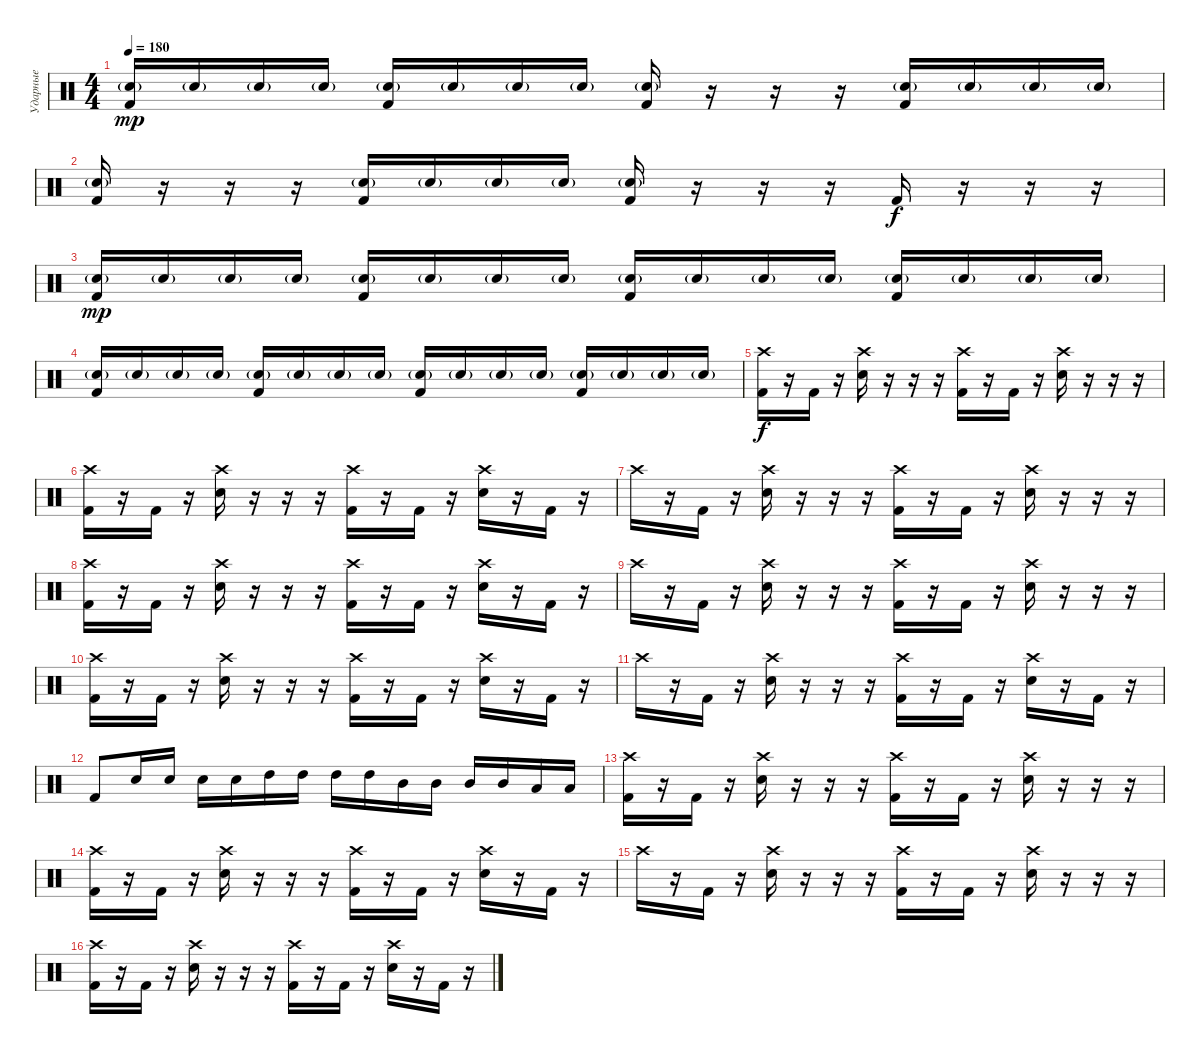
\track ("Ударные" "Ударные") {instrument percussion}
\staff {score}
\articulation defaults
\ts (4 4)
\tempo 180
\clef neutral
\ks c
("Electric Snare (hit)"{g} "Kick (hit) 2").16{dy mp} "Electric Snare (hit)"{g}.16 "Electric Snare (hit)"{g}.16 "Electric Snare (hit)"{g}.16 ("Electric Snare (hit)"{g} "Kick (hit) 2").16 "Electric Snare (hit)"{g}.16 "Electric Snare (hit)"{g}.16 "Electric Snare (hit)"{g}.16 ("Electric Snare (hit)"{g} "Kick (hit) 2").16 r.16 r.16 r.16 ("Electric Snare (hit)"{g} "Kick (hit) 2").16 "Electric Snare (hit)"{g}.16 "Electric Snare (hit)"{g}.16 "Electric Snare (hit)"{g}.16 |
("Electric Snare (hit)"{g} "Kick (hit) 2").16 r.16 r.16 r.16 ("Electric Snare (hit)"{g} "Kick (hit) 2").16 "Electric Snare (hit)"{g}.16 "Electric Snare (hit)"{g}.16 "Electric Snare (hit)"{g}.16 ("Electric Snare (hit)"{g} "Kick (hit) 2").16 r.16 r.16 r.16 "Kick (hit) 2".16{dy f} r.16 r.16 r.16 |
("Electric Snare (hit)"{g} "Kick (hit) 2").16{dy mp} "Electric Snare (hit)"{g}.16 "Electric Snare (hit)"{g}.16 "Electric Snare (hit)"{g}.16 ("Electric Snare (hit)"{g} "Kick (hit) 2").16 "Electric Snare (hit)"{g}.16 "Electric Snare (hit)"{g}.16 "Electric Snare (hit)"{g}.16 ("Electric Snare (hit)"{g} "Kick (hit) 2").16 "Electric Snare (hit)"{g}.16 "Electric Snare (hit)"{g}.16 "Electric Snare (hit)"{g}.16 ("Electric Snare (hit)"{g} "Kick (hit) 2").16 "Electric Snare (hit)"{g}.16 "Electric Snare (hit)"{g}.16 "Electric Snare (hit)"{g}.16 |
("Electric Snare (hit)"{g} "Kick (hit) 2").16 "Electric Snare (hit)"{g}.16 "Electric Snare (hit)"{g}.16 "Electric Snare (hit)"{g}.16 ("Electric Snare (hit)"{g} "Kick (hit) 2").16 "Electric Snare (hit)"{g}.16 "Electric Snare (hit)"{g}.16 "Electric Snare (hit)"{g}.16 ("Electric Snare (hit)"{g} "Kick (hit) 2").16 "Electric Snare (hit)"{g}.16 "Electric Snare (hit)"{g}.16 "Electric Snare (hit)"{g}.16 ("Electric Snare (hit)"{g} "Kick (hit) 2").16 "Electric Snare (hit)"{g}.16 "Electric Snare (hit)"{g}.16 "Electric Snare (hit)"{g}.16 |
("Crash high (hit)" "Kick (hit) 2").16{dy f} r.16 "Kick (hit) 2".16 r.16 ("Crash high (hit)" "Electric Snare (hit)").16 r.16 r.16 r.16 ("Crash high (hit)" "Kick (hit) 2").16 r.16 "Kick (hit) 2".16 r.16 ("Crash high (hit)" "Electric Snare (hit)").16 r.16 r.16 r.16 |
("Crash high (hit)" "Kick (hit) 2").16 r.16 "Kick (hit) 2".16 r.16 ("Crash high (hit)" "Electric Snare (hit)").16 r.16 r.16 r.16 ("Crash high (hit)" "Kick (hit) 2").16 r.16 "Kick (hit) 2".16 r.16 ("Crash high (hit)" "Electric Snare (hit)").16 r.16 "Kick (hit) 2".16 r.16 |
"Crash high (hit)".16 r.16 "Kick (hit) 2".16 r.16 ("Crash high (hit)" "Electric Snare (hit)").16 r.16 r.16 r.16 ("Crash high (hit)" "Kick (hit) 2").16 r.16 "Kick (hit) 2".16 r.16 ("Crash high (hit)" "Electric Snare (hit)").16 r.16 r.16 r.16 |
("Crash high (hit)" "Kick (hit) 2").16 r.16 "Kick (hit) 2".16 r.16 ("Crash high (hit)" "Electric Snare (hit)").16 r.16 r.16 r.16 ("Crash high (hit)" "Kick (hit) 2").16 r.16 "Kick (hit) 2".16 r.16 ("Crash high (hit)" "Electric Snare (hit)").16 r.16 "Kick (hit) 2".16 r.16 |
"Crash high (hit)".16 r.16 "Kick (hit) 2".16 r.16 ("Crash high (hit)" "Electric Snare (hit)").16 r.16 r.16 r.16 ("Crash high (hit)" "Kick (hit) 2").16 r.16 "Kick (hit) 2".16 r.16 ("Crash high (hit)" "Electric Snare (hit)").16 r.16 r.16 r.16 |
("Crash high (hit)" "Kick (hit) 2").16 r.16 "Kick (hit) 2".16 r.16 ("Crash high (hit)" "Electric Snare (hit)").16 r.16 r.16 r.16 ("Crash high (hit)" "Kick (hit) 2").16 r.16 "Kick (hit) 2".16 r.16 ("Crash high (hit)" "Electric Snare (hit)").16 r.16 "Kick (hit) 2".16 r.16 |
"Crash high (hit)".16 r.16 "Kick (hit) 2".16 r.16 ("Crash high (hit)" "Electric Snare (hit)").16 r.16 r.16 r.16 ("Crash high (hit)" "Kick (hit) 2").16 r.16 "Kick (hit) 2".16 r.16 ("Crash high (hit)" "Electric Snare (hit)").16 r.16 "Kick (hit) 2".16 r.16 |
"Kick (hit) 2".8 "Electric Snare (hit)".16 "Electric Snare (hit)".16 "Electric Snare (hit)".16 "Electric Snare (hit)".16 "High Tom (hit)".16 "High Tom (hit)".16 "High Tom (hit)".16 "High Tom (hit)".16 "Mid Tom (hit)".16 "Mid Tom (hit)".16 "Mid Tom (hit)".16 "Mid Tom (hit)".16 "Low Tom (hit)".16 "Low Tom (hit)".16 |
("Crash high (hit)" "Kick (hit) 2").16 r.16 "Kick (hit) 2".16 r.16 ("Crash high (hit)" "Electric Snare (hit)").16 r.16 r.16 r.16 ("Crash high (hit)" "Kick (hit) 2").16 r.16 "Kick (hit) 2".16 r.16 ("Crash high (hit)" "Electric Snare (hit)").16 r.16 r.16 r.16 |
("Crash high (hit)" "Kick (hit) 2").16 r.16 "Kick (hit) 2".16 r.16 ("Crash high (hit)" "Electric Snare (hit)").16 r.16 r.16 r.16 ("Crash high (hit)" "Kick (hit) 2").16 r.16 "Kick (hit) 2".16 r.16 ("Crash high (hit)" "Electric Snare (hit)").16 r.16 "Kick (hit) 2".16 r.16 |
"Crash high (hit)".16 r.16 "Kick (hit) 2".16 r.16 ("Crash high (hit)" "Electric Snare (hit)").16 r.16 r.16 r.16 ("Crash high (hit)" "Kick (hit) 2").16 r.16 "Kick (hit) 2".16 r.16 ("Crash high (hit)" "Electric Snare (hit)").16 r.16 r.16 r.16 |
("Crash high (hit)" "Kick (hit) 2").16 r.16 "Kick (hit) 2".16 r.16 ("Crash high (hit)" "Electric Snare (hit)").16 r.16 r.16 r.16 ("Crash high (hit)" "Kick (hit) 2").16 r.16 "Kick (hit) 2".16 r.16 ("Crash high (hit)" "Electric Snare (hit)").16 r.16 "Kick (hit) 2".16 r.16
